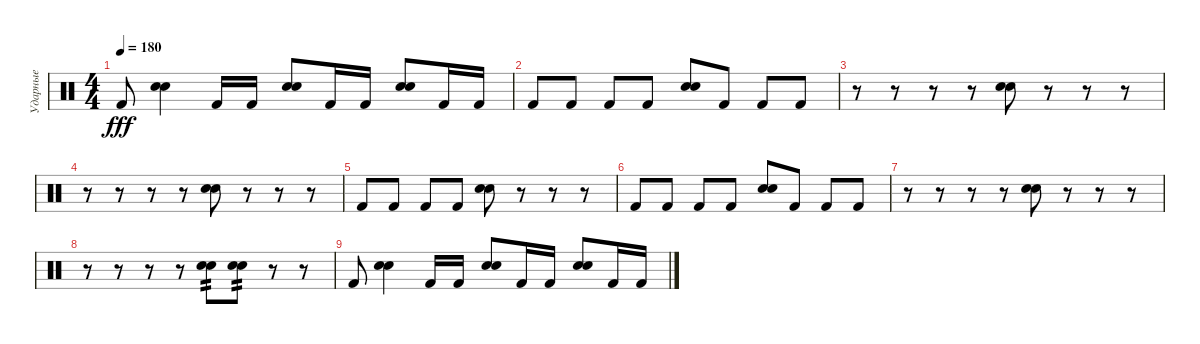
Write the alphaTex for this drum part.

\track ("Ударные" "Ударные") {instrument percussion}
\staff {score}
\articulation defaults
\ts (4 4)
\tempo 180
\clef neutral
\ks c "Kick (hit) 2".8{dy fff}
("Snare (hit) 2" "Electric Snare (hit)").4 "Kick (hit) 2".16 "Kick (hit) 2".16 ("Snare (hit) 2" "Electric Snare (hit)").8 "Kick (hit) 2".16 "Kick (hit) 2".16 ("Snare (hit) 2" "Electric Snare (hit)").8 "Kick (hit) 2".16 "Kick (hit) 2".16 |
"Kick (hit) 2".8 "Kick (hit) 2".8 "Kick (hit) 2".8 "Kick (hit) 2".8 ("Snare (hit) 2" "Electric Snare (hit)").8 "Kick (hit) 2".8 "Kick (hit) 2".8 "Kick (hit) 2".8 |
r.8 r.8 r.8 r.8 ("Electric Snare (hit)" "Snare (hit) 2").8 r.8 r.8 r.8 |
r.8 r.8 r.8 r.8 ("Electric Snare (hit)" "Snare (hit) 2").8 r.8 r.8 r.8 |
"Kick (hit) 2".8 "Kick (hit) 2".8 "Kick (hit) 2".8 "Kick (hit) 2".8 ("Electric Snare (hit)" "Snare (hit) 2").8 r.8 r.8 r.8 |
"Kick (hit) 2".8 "Kick (hit) 2".8 "Kick (hit) 2".8 "Kick (hit) 2".8 ("Snare (hit) 2" "Electric Snare (hit)").8 "Kick (hit) 2".8 "Kick (hit) 2".8 "Kick (hit) 2".8 |
r.8 r.8 r.8 r.8 ("Electric Snare (hit)" "Snare (hit) 2").8 r.8 r.8 r.8 |
r.8 r.8 r.8 r.8 ("Electric Snare (hit)" "Snare (hit) 2").8{tp 2} ("Electric Snare (hit)" "Snare (hit) 2").8{tp 2} r.8 r.8 |
"Kick (hit) 2".8 ("Snare (hit) 2" "Electric Snare (hit)").4 "Kick (hit) 2".16 "Kick (hit) 2".16 ("Snare (hit) 2" "Electric Snare (hit)").8 "Kick (hit) 2".16 "Kick (hit) 2".16 ("Snare (hit) 2" "Electric Snare (hit)").8 "Kick (hit) 2".16 "Kick (hit) 2".16
